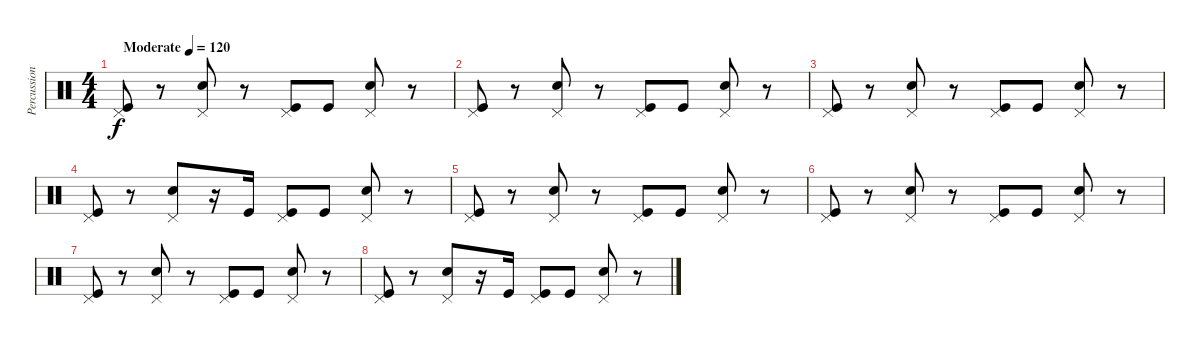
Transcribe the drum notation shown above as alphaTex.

\track ("Percussion" "Percussion") {instrument percussion}
\staff {score}
\articulation defaults
\ts (4 4)
\tempo (120 "Moderate")
\clef neutral
\ks c
("Pedal Hi-Hat (hit)" "Kick (hit)").8{dy f} r.8 ("Pedal Hi-Hat (hit)" "Electric Snare (hit)").8 r.8 ("Pedal Hi-Hat (hit)" "Kick (hit)").8 "Kick (hit)".8 ("Pedal Hi-Hat (hit)" "Electric Snare (hit)").8 r.8 |
("Pedal Hi-Hat (hit)" "Kick (hit)").8 r.8 ("Pedal Hi-Hat (hit)" "Electric Snare (hit)").8 r.8 ("Pedal Hi-Hat (hit)" "Kick (hit)").8 "Kick (hit)".8 ("Pedal Hi-Hat (hit)" "Electric Snare (hit)").8 r.8 |
("Pedal Hi-Hat (hit)" "Kick (hit)").8 r.8 ("Pedal Hi-Hat (hit)" "Electric Snare (hit)").8 r.8 ("Pedal Hi-Hat (hit)" "Kick (hit)").8 "Kick (hit)".8 ("Pedal Hi-Hat (hit)" "Electric Snare (hit)").8 r.8 |
("Pedal Hi-Hat (hit)" "Kick (hit)").8 r.8 ("Pedal Hi-Hat (hit)" "Electric Snare (hit)").8 r.16 "Kick (hit)".16 ("Pedal Hi-Hat (hit)" "Kick (hit)").8 "Kick (hit)".8 ("Pedal Hi-Hat (hit)" "Electric Snare (hit)").8 r.8 |
("Pedal Hi-Hat (hit)" "Kick (hit)").8 r.8 ("Pedal Hi-Hat (hit)" "Electric Snare (hit)").8 r.8 ("Pedal Hi-Hat (hit)" "Kick (hit)").8 "Kick (hit)".8 ("Pedal Hi-Hat (hit)" "Electric Snare (hit)").8 r.8 |
("Pedal Hi-Hat (hit)" "Kick (hit)").8 r.8 ("Pedal Hi-Hat (hit)" "Electric Snare (hit)").8 r.8 ("Pedal Hi-Hat (hit)" "Kick (hit)").8 "Kick (hit)".8 ("Pedal Hi-Hat (hit)" "Electric Snare (hit)").8 r.8 |
("Pedal Hi-Hat (hit)" "Kick (hit)").8 r.8 ("Pedal Hi-Hat (hit)" "Electric Snare (hit)").8 r.8 ("Pedal Hi-Hat (hit)" "Kick (hit)").8 "Kick (hit)".8 ("Pedal Hi-Hat (hit)" "Electric Snare (hit)").8 r.8 |
("Pedal Hi-Hat (hit)" "Kick (hit)").8 r.8 ("Pedal Hi-Hat (hit)" "Electric Snare (hit)").8 r.16 "Kick (hit)".16 ("Pedal Hi-Hat (hit)" "Kick (hit)").8 "Kick (hit)".8 ("Pedal Hi-Hat (hit)" "Electric Snare (hit)").8 r.8
